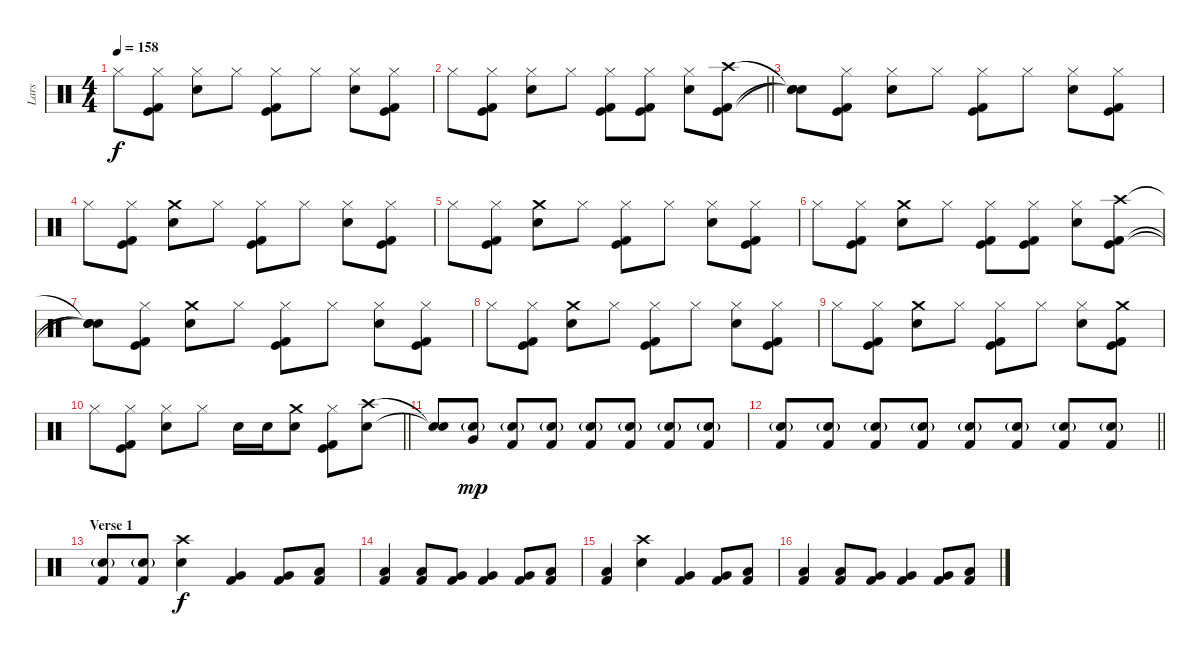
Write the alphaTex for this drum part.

\track ("Lars" "Lars") {instrument percussion}
\staff {score}
\articulation defaults
\ts (4 4)
\tempo 158
\clef neutral
\ks c "Hi-Hat (closed)".8{dy f}
("Hi-Hat (closed)" "Kick (hit)" "Kick (hit) 2").8 ("Hi-Hat (closed)" "Electric Snare (hit)").8 "Hi-Hat (closed)".8 ("Hi-Hat (closed)" "Kick (hit)" "Kick (hit) 2").8 "Hi-Hat (closed)".8 ("Hi-Hat (closed)" "Electric Snare (hit)").8 ("Hi-Hat (closed)" "Kick (hit)" "Kick (hit) 2").8 |
\barLineRight lightlight "Hi-Hat (closed)".8
("Hi-Hat (closed)" "Kick (hit)" "Kick (hit) 2").8 ("Hi-Hat (closed)" "Electric Snare (hit)").8 "Hi-Hat (closed)".8 ("Hi-Hat (closed)" "Kick (hit)" "Kick (hit) 2").8 ("Hi-Hat (closed)" "Kick (hit)" "Kick (hit) 2").8 ("Hi-Hat (closed)" "Electric Snare (hit)").8 ("Crash high (hit)" "Kick (hit)" "Kick (hit) 2").8 |
\section ("" "")
("Snare (hit)"{t} "Snare (hit)"{t} "Snare (hit)"{t}).8 ("Hi-Hat (closed)" "Kick (hit)" "Kick (hit) 2").8 ("Hi-Hat (closed)" "Electric Snare (hit)").8 "Hi-Hat (closed)".8 ("Hi-Hat (closed)" "Kick (hit)" "Kick (hit) 2").8 "Hi-Hat (closed)".8 ("Hi-Hat (closed)" "Electric Snare (hit)").8 ("Hi-Hat (closed)" "Kick (hit)" "Kick (hit) 2").8 |
"Hi-Hat (closed)".8 ("Hi-Hat (closed)" "Kick (hit)" "Kick (hit) 2").8 ("Crash medium (hit)" "Electric Snare (hit)").8 "Hi-Hat (closed)".8 ("Hi-Hat (closed)" "Kick (hit)" "Kick (hit) 2").8 "Hi-Hat (closed)".8 ("Hi-Hat (closed)" "Electric Snare (hit)").8 ("Hi-Hat (closed)" "Kick (hit)" "Kick (hit) 2").8 |
"Hi-Hat (closed)".8 ("Hi-Hat (closed)" "Kick (hit)" "Kick (hit) 2").8 ("Crash medium (hit)" "Electric Snare (hit)").8 "Hi-Hat (closed)".8 ("Hi-Hat (closed)" "Kick (hit)" "Kick (hit) 2").8 "Hi-Hat (closed)".8 ("Hi-Hat (closed)" "Electric Snare (hit)").8 ("Hi-Hat (closed)" "Kick (hit)" "Kick (hit) 2").8 |
"Hi-Hat (closed)".8 ("Hi-Hat (closed)" "Kick (hit)" "Kick (hit) 2").8 ("Crash medium (hit)" "Electric Snare (hit)").8 "Hi-Hat (closed)".8 ("Hi-Hat (closed)" "Kick (hit)" "Kick (hit) 2").8 ("Hi-Hat (closed)" "Kick (hit)" "Kick (hit) 2").8 ("Hi-Hat (closed)" "Electric Snare (hit)").8 ("Crash high (hit)" "Kick (hit)" "Kick (hit) 2").8 |
("Snare (hit)"{t} "Snare (hit)"{t} "Snare (hit)"{t}).8 ("Hi-Hat (closed)" "Kick (hit)" "Kick (hit) 2").8 ("Crash medium (hit)" "Electric Snare (hit)").8 "Hi-Hat (closed)".8 ("Hi-Hat (closed)" "Kick (hit)" "Kick (hit) 2").8 "Hi-Hat (closed)".8 ("Hi-Hat (closed)" "Electric Snare (hit)").8 ("Hi-Hat (closed)" "Kick (hit)" "Kick (hit) 2").8 |
"Hi-Hat (closed)".8 ("Hi-Hat (closed)" "Kick (hit)" "Kick (hit) 2").8 ("Crash medium (hit)" "Electric Snare (hit)").8 "Hi-Hat (closed)".8 ("Hi-Hat (closed)" "Kick (hit)" "Kick (hit) 2").8 "Hi-Hat (closed)".8 ("Hi-Hat (closed)" "Electric Snare (hit)").8 ("Hi-Hat (closed)" "Kick (hit)" "Kick (hit) 2").8 |
"Hi-Hat (closed)".8 ("Hi-Hat (closed)" "Kick (hit)" "Kick (hit) 2").8 ("Crash medium (hit)" "Electric Snare (hit)").8 "Hi-Hat (closed)".8 ("Hi-Hat (closed)" "Kick (hit)" "Kick (hit) 2").8 "Hi-Hat (closed)".8 ("Hi-Hat (closed)" "Electric Snare (hit)").8 ("Crash medium (hit)" "Kick (hit)" "Kick (hit) 2").8 |
\barLineRight lightlight "Hi-Hat (closed)".8
("Hi-Hat (closed)" "Kick (hit)" "Kick (hit) 2").8 ("Hi-Hat (closed)" "Electric Snare (hit)").8 "Hi-Hat (closed)".8 "Electric Snare (hit)".16 "Electric Snare (hit)".16 ("Crash medium (hit)" "Electric Snare (hit)").8 ("Hi-Hat (closed)" "Kick (hit)" "Kick (hit) 2").8 ("Crash high (hit)" "Electric Snare (hit)").8 |
\section ("" "")
("Snare (hit)"{t} "Snare (hit)"{t}).8 ("Electric Snare (hit)"{g} "Very Low Tom (hit)").8{dy mp} ("Electric Snare (hit)"{g} "Kick (hit) 2").8 ("Electric Snare (hit)"{g} "Kick (hit) 2").8 ("Electric Snare (hit)"{g} "Kick (hit) 2").8 ("Electric Snare (hit)"{g} "Kick (hit) 2").8 ("Electric Snare (hit)"{g} "Kick (hit) 2").8 ("Electric Snare (hit)"{g} "Kick (hit) 2").8 |
\barLineRight lightlight
("Electric Snare (hit)"{g} "Kick (hit) 2").8 ("Electric Snare (hit)"{g} "Kick (hit) 2").8 ("Electric Snare (hit)"{g} "Kick (hit) 2").8 ("Electric Snare (hit)"{g} "Kick (hit) 2").8 ("Electric Snare (hit)"{g} "Kick (hit) 2").8 ("Electric Snare (hit)"{g} "Kick (hit) 2").8 ("Electric Snare (hit)"{g} "Kick (hit) 2").8 ("Electric Snare (hit)"{g} "Kick (hit) 2").8 |
\section ("" "Verse 1")
("Electric Snare (hit)"{g} "Kick (hit) 2").8 ("Electric Snare (hit)"{g} "Kick (hit) 2").8 ("Crash high (hit)" "Electric Snare (hit)").4{dy f} ("Kick (hit) 2" "Very Low Tom (hit)").4 ("Kick (hit) 2" "Very Low Tom (hit)").8 ("Kick (hit) 2" "Low Floor Tom (hit)").8 |
("Kick (hit) 2" "Low Tom (hit)").4 ("Kick (hit) 2" "Low Tom (hit)").8 ("Kick (hit) 2" "Very Low Tom (hit)").8 ("Kick (hit) 2" "Very Low Tom (hit)").4 ("Kick (hit) 2" "Very Low Tom (hit)").8 ("Kick (hit) 2" "Low Floor Tom (hit)").8 |
("Kick (hit) 2" "Low Tom (hit)").4 ("Crash high (hit)" "Electric Snare (hit)").4 ("Kick (hit) 2" "Very Low Tom (hit)").4 ("Kick (hit) 2" "Very Low Tom (hit)").8 ("Kick (hit) 2" "Low Floor Tom (hit)").8 |
("Kick (hit) 2" "Low Tom (hit)").4 ("Kick (hit) 2" "Low Tom (hit)").8 ("Kick (hit) 2" "Very Low Tom (hit)").8 ("Kick (hit) 2" "Very Low Tom (hit)").4 ("Kick (hit) 2" "Very Low Tom (hit)").8 ("Kick (hit) 2" "Low Floor Tom (hit)").8
